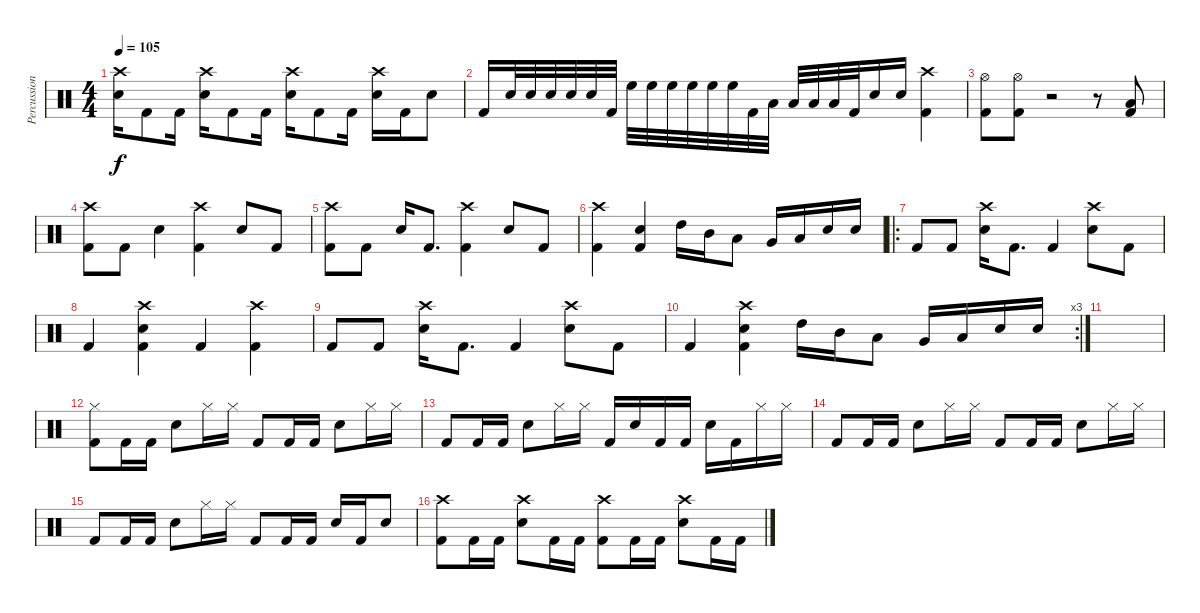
\track ("Percussion" "Percussion") {instrument percussion}
\staff {score}
\articulation defaults
\ts (4 4)
\tempo 105
\clef neutral
\ks c
("Crash high (hit)" "Electric Snare (hit)").16{dy f} "Kick (hit) 2".8 "Kick (hit) 2".16 ("Crash high (hit)" "Electric Snare (hit)").16 "Kick (hit) 2".8 "Kick (hit) 2".16 ("Crash high (hit)" "Electric Snare (hit)").16 "Kick (hit) 2".8 "Kick (hit) 2".16 ("Crash high (hit)" "Electric Snare (hit)").16 "Kick (hit) 2".16 "Electric Snare (hit)".8 |
"Kick (hit) 2".16 "Electric Snare (hit)".32 "Electric Snare (hit)".32 "Electric Snare (hit)".32 "Electric Snare (hit)".32 "Electric Snare (hit)".32 "Kick (hit) 2".32 "High Floor Tom (hit)".32 "High Floor Tom (hit)".32 "High Floor Tom (hit)".32 "High Floor Tom (hit)".32 "High Floor Tom (hit)".32 "High Floor Tom (hit)".32 "Kick (hit) 2".32 "Low Tom (hit)".32 "Low Tom (hit)".32 "Low Tom (hit)".32 "Low Tom (hit)".32 "Kick (hit) 2".32 "Electric Snare (hit)".16 "Electric Snare (hit)".16 ("Crash high (hit)" "Kick (hit) 2").4 |
("Hi-Hat (open)" "Kick (hit) 2").8 ("Hi-Hat (open)" "Kick (hit) 2").8 r.2 r.8 ("Low Floor Tom (hit)" "Kick (hit) 2").8 |
("Crash high (hit)" "Kick (hit) 2").8 "Kick (hit) 2".8 "Electric Snare (hit)".4 ("Crash high (hit)" "Kick (hit) 2").4 "Electric Snare (hit)".8 "Kick (hit) 2".8 |
("Crash high (hit)" "Kick (hit) 2").8 "Kick (hit) 2".8 "Electric Snare (hit)".16 "Kick (hit) 2".8{d} ("Crash high (hit)" "Kick (hit) 2").4 "Electric Snare (hit)".8 "Kick (hit) 2".8 |
("Crash high (hit)" "Kick (hit) 2").4 ("Electric Snare (hit)" "Kick (hit) 2").4 "High Tom (hit)".16 "Mid Tom (hit)".16 "Low Tom (hit)".8 "Very Low Tom (hit)".16 "Low Floor Tom (hit)".16 "Electric Snare (hit)".16 "Electric Snare (hit)".16 |
\ro "Kick (hit) 2".8 "Kick (hit) 2".8
("Crash high (hit)" "Electric Snare (hit)").16 "Kick (hit) 2".8{d} "Kick (hit) 2".4 ("Crash high (hit)" "Electric Snare (hit)").8 "Kick (hit) 2".8 |
"Kick (hit) 2".4 ("Crash high (hit)" "Electric Snare (hit)" "Kick (hit) 2").4 "Kick (hit) 2".4 ("Crash high (hit)" "Kick (hit) 2").4 |
"Kick (hit) 2".8 "Kick (hit) 2".8 ("Crash high (hit)" "Electric Snare (hit)").16 "Kick (hit) 2".8{d} "Kick (hit) 2".4 ("Crash high (hit)" "Electric Snare (hit)").8 "Kick (hit) 2".8 |
\rc 3 "Kick (hit) 2".4
("Crash high (hit)" "Electric Snare (hit)" "Kick (hit) 2").4 "High Tom (hit)".16 "Mid Tom (hit)".16 "Low Tom (hit)".8 "Very Low Tom (hit)".16 "Low Floor Tom (hit)".16 "Electric Snare (hit)".16 "Electric Snare (hit)".16 |
|
("Hi-Hat (closed)" "Kick (hit) 2").8 "Kick (hit) 2".16 "Kick (hit) 2".16 "Electric Snare (hit)".8 "Hi-Hat (closed)".16 "Hi-Hat (closed)".16 "Kick (hit) 2".8 "Kick (hit) 2".16 "Kick (hit) 2".16 "Electric Snare (hit)".8 "Hi-Hat (closed)".16 "Hi-Hat (closed)".16 |
"Kick (hit) 2".8 "Kick (hit) 2".16 "Kick (hit) 2".16 "Electric Snare (hit)".8 "Hi-Hat (closed)".16 "Hi-Hat (closed)".16 "Kick (hit) 2".16 "Electric Snare (hit)".16 "Kick (hit) 2".16 "Kick (hit) 2".16 "Electric Snare (hit)".16 "Kick (hit) 2".16 "Hi-Hat (closed)".16 "Hi-Hat (closed)".16 |
"Kick (hit) 2".8 "Kick (hit) 2".16 "Kick (hit) 2".16 "Electric Snare (hit)".8 "Hi-Hat (closed)".16 "Hi-Hat (closed)".16 "Kick (hit) 2".8 "Kick (hit) 2".16 "Kick (hit) 2".16 "Electric Snare (hit)".8 "Hi-Hat (closed)".16 "Hi-Hat (closed)".16 |
"Kick (hit) 2".8 "Kick (hit) 2".16 "Kick (hit) 2".16 "Electric Snare (hit)".8 "Hi-Hat (closed)".16 "Hi-Hat (closed)".16 "Kick (hit) 2".8 "Kick (hit) 2".16 "Kick (hit) 2".16 "Electric Snare (hit)".16 "Kick (hit) 2".16 "Electric Snare (hit)".8 |
("Crash high (hit)" "Kick (hit) 2").8 "Kick (hit) 2".16 "Kick (hit) 2".16 ("Crash high (hit)" "Electric Snare (hit)").8 "Kick (hit) 2".16 "Kick (hit) 2".16 ("Crash high (hit)" "Kick (hit) 2").8 "Kick (hit) 2".16 "Kick (hit) 2".16 ("Crash high (hit)" "Electric Snare (hit)").8 "Kick (hit) 2".16 "Kick (hit) 2".16
